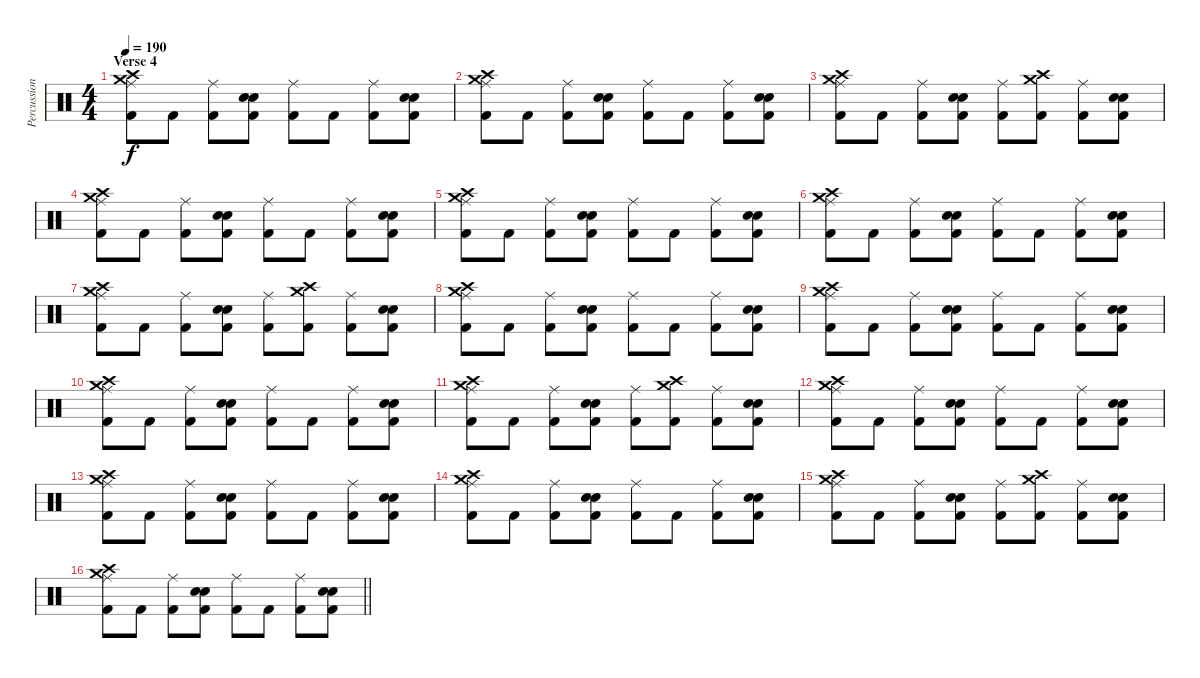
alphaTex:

\track ("Percussion" "Percussion") {instrument percussion}
\staff {score}
\articulation defaults
\ts (4 4)
\section ("" "Verse 4")
\tempo 190
\clef neutral
\ks c
("Ride (middle)" "Kick (hit) 2" "Crash medium (hit)" "Crash high (hit)").8{dy f} "Kick (hit) 2".8 ("Ride (middle)" "Kick (hit) 2").8 ("Electric Snare (hit)" "Snare (hit) 2" "Kick (hit) 2").8 ("Ride (middle)" "Kick (hit) 2").8 "Kick (hit) 2".8 ("Ride (middle)" "Kick (hit) 2").8 ("Electric Snare (hit)" "Snare (hit) 2" "Kick (hit) 2").8 |
("Ride (middle)" "Kick (hit) 2" "Crash medium (hit)" "Crash high (hit)").8 "Kick (hit) 2".8 ("Ride (middle)" "Kick (hit) 2").8 ("Electric Snare (hit)" "Snare (hit) 2" "Kick (hit) 2").8 ("Ride (middle)" "Kick (hit) 2").8 "Kick (hit) 2".8 ("Ride (middle)" "Kick (hit) 2").8 ("Electric Snare (hit)" "Snare (hit) 2" "Kick (hit) 2").8 |
("Ride (middle)" "Kick (hit) 2" "Crash medium (hit)" "Crash high (hit)").8 "Kick (hit) 2".8 ("Ride (middle)" "Kick (hit) 2").8 ("Electric Snare (hit)" "Snare (hit) 2" "Kick (hit) 2").8 ("Ride (middle)" "Kick (hit) 2").8 ("Kick (hit) 2" "Crash medium (hit)" "Crash high (hit)").8 ("Ride (middle)" "Kick (hit) 2").8 ("Electric Snare (hit)" "Snare (hit) 2" "Kick (hit) 2").8 |
("Ride (middle)" "Kick (hit) 2" "Crash medium (hit)" "Crash high (hit)").8 "Kick (hit) 2".8 ("Ride (middle)" "Kick (hit) 2").8 ("Electric Snare (hit)" "Snare (hit) 2" "Kick (hit) 2").8 ("Ride (middle)" "Kick (hit) 2").8 "Kick (hit) 2".8 ("Ride (middle)" "Kick (hit) 2").8 ("Electric Snare (hit)" "Snare (hit) 2" "Kick (hit) 2").8 |
("Ride (middle)" "Kick (hit) 2" "Crash medium (hit)" "Crash high (hit)").8 "Kick (hit) 2".8 ("Ride (middle)" "Kick (hit) 2").8 ("Electric Snare (hit)" "Snare (hit) 2" "Kick (hit) 2").8 ("Ride (middle)" "Kick (hit) 2").8 "Kick (hit) 2".8 ("Ride (middle)" "Kick (hit) 2").8 ("Electric Snare (hit)" "Snare (hit) 2" "Kick (hit) 2").8 |
("Ride (middle)" "Kick (hit) 2" "Crash medium (hit)" "Crash high (hit)").8 "Kick (hit) 2".8 ("Ride (middle)" "Kick (hit) 2").8 ("Electric Snare (hit)" "Snare (hit) 2" "Kick (hit) 2").8 ("Ride (middle)" "Kick (hit) 2").8 "Kick (hit) 2".8 ("Ride (middle)" "Kick (hit) 2").8 ("Electric Snare (hit)" "Snare (hit) 2" "Kick (hit) 2").8 |
("Ride (middle)" "Kick (hit) 2" "Crash medium (hit)" "Crash high (hit)").8 "Kick (hit) 2".8 ("Ride (middle)" "Kick (hit) 2").8 ("Electric Snare (hit)" "Snare (hit) 2" "Kick (hit) 2").8 ("Ride (middle)" "Kick (hit) 2").8 ("Kick (hit) 2" "Crash medium (hit)" "Crash high (hit)").8 ("Ride (middle)" "Kick (hit) 2").8 ("Electric Snare (hit)" "Snare (hit) 2" "Kick (hit) 2").8 |
("Ride (middle)" "Kick (hit) 2" "Crash medium (hit)" "Crash high (hit)").8 "Kick (hit) 2".8 ("Ride (middle)" "Kick (hit) 2").8 ("Electric Snare (hit)" "Snare (hit) 2" "Kick (hit) 2").8 ("Ride (middle)" "Kick (hit) 2").8 "Kick (hit) 2".8 ("Ride (middle)" "Kick (hit) 2").8 ("Electric Snare (hit)" "Snare (hit) 2" "Kick (hit) 2").8 |
("Ride (middle)" "Kick (hit) 2" "Crash medium (hit)" "Crash high (hit)").8 "Kick (hit) 2".8 ("Ride (middle)" "Kick (hit) 2").8 ("Electric Snare (hit)" "Snare (hit) 2" "Kick (hit) 2").8 ("Ride (middle)" "Kick (hit) 2").8 "Kick (hit) 2".8 ("Ride (middle)" "Kick (hit) 2").8 ("Electric Snare (hit)" "Snare (hit) 2" "Kick (hit) 2").8 |
("Ride (middle)" "Kick (hit) 2" "Crash medium (hit)" "Crash high (hit)").8 "Kick (hit) 2".8 ("Ride (middle)" "Kick (hit) 2").8 ("Electric Snare (hit)" "Snare (hit) 2" "Kick (hit) 2").8 ("Ride (middle)" "Kick (hit) 2").8 "Kick (hit) 2".8 ("Ride (middle)" "Kick (hit) 2").8 ("Electric Snare (hit)" "Snare (hit) 2" "Kick (hit) 2").8 |
("Ride (middle)" "Kick (hit) 2" "Crash medium (hit)" "Crash high (hit)").8 "Kick (hit) 2".8 ("Ride (middle)" "Kick (hit) 2").8 ("Electric Snare (hit)" "Snare (hit) 2" "Kick (hit) 2").8 ("Ride (middle)" "Kick (hit) 2").8 ("Kick (hit) 2" "Crash medium (hit)" "Crash high (hit)").8 ("Ride (middle)" "Kick (hit) 2").8 ("Electric Snare (hit)" "Snare (hit) 2" "Kick (hit) 2").8 |
("Ride (middle)" "Kick (hit) 2" "Crash medium (hit)" "Crash high (hit)").8 "Kick (hit) 2".8 ("Ride (middle)" "Kick (hit) 2").8 ("Electric Snare (hit)" "Snare (hit) 2" "Kick (hit) 2").8 ("Ride (middle)" "Kick (hit) 2").8 "Kick (hit) 2".8 ("Ride (middle)" "Kick (hit) 2").8 ("Electric Snare (hit)" "Snare (hit) 2" "Kick (hit) 2").8 |
("Ride (middle)" "Kick (hit) 2" "Crash medium (hit)" "Crash high (hit)").8 "Kick (hit) 2".8 ("Ride (middle)" "Kick (hit) 2").8 ("Electric Snare (hit)" "Snare (hit) 2" "Kick (hit) 2").8 ("Ride (middle)" "Kick (hit) 2").8 "Kick (hit) 2".8 ("Ride (middle)" "Kick (hit) 2").8 ("Electric Snare (hit)" "Snare (hit) 2" "Kick (hit) 2").8 |
("Ride (middle)" "Kick (hit) 2" "Crash medium (hit)" "Crash high (hit)").8 "Kick (hit) 2".8 ("Ride (middle)" "Kick (hit) 2").8 ("Electric Snare (hit)" "Snare (hit) 2" "Kick (hit) 2").8 ("Ride (middle)" "Kick (hit) 2").8 "Kick (hit) 2".8 ("Ride (middle)" "Kick (hit) 2").8 ("Electric Snare (hit)" "Snare (hit) 2" "Kick (hit) 2").8 |
("Ride (middle)" "Kick (hit) 2" "Crash medium (hit)" "Crash high (hit)").8 "Kick (hit) 2".8 ("Ride (middle)" "Kick (hit) 2").8 ("Electric Snare (hit)" "Snare (hit) 2" "Kick (hit) 2").8 ("Ride (middle)" "Kick (hit) 2").8 ("Kick (hit) 2" "Crash medium (hit)" "Crash high (hit)").8 ("Ride (middle)" "Kick (hit) 2").8 ("Electric Snare (hit)" "Snare (hit) 2" "Kick (hit) 2").8 |
\barLineRight lightlight
("Ride (middle)" "Kick (hit) 2" "Crash medium (hit)" "Crash high (hit)").8 "Kick (hit) 2".8 ("Ride (middle)" "Kick (hit) 2").8 ("Electric Snare (hit)" "Snare (hit) 2" "Kick (hit) 2").8 ("Ride (middle)" "Kick (hit) 2").8 "Kick (hit) 2".8 ("Ride (middle)" "Kick (hit) 2").8 ("Electric Snare (hit)" "Snare (hit) 2" "Kick (hit) 2").8
